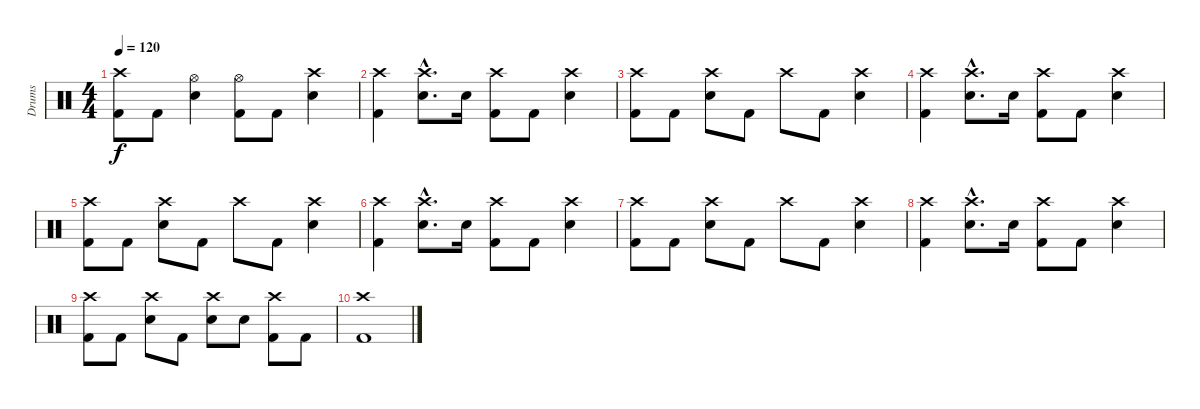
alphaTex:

\track ("Drums" "Drums") {instrument percussion}
\staff {score}
\articulation defaults
\ts (4 4)
\tempo 120
\clef neutral
\ks c
("Crash high (hit)" "Kick (hit) 2").8{dy f} "Kick (hit) 2".8 ("Hi-Hat (open)" "Snare (hit) 2").4 ("Hi-Hat (open)" "Kick (hit) 2").8 "Kick (hit) 2".8 ("Crash high (hit)" "Snare (hit) 2").4 |
("Crash high (hit)" "Kick (hit) 2").4 ("Crash high (hit)"{hac} "Snare (hit) 2"{hac}).8{d} "Snare (hit) 2".16 ("Crash high (hit)" "Kick (hit) 2").8 "Kick (hit) 2".8 ("Crash high (hit)" "Snare (hit) 2").4 |
("Crash high (hit)" "Kick (hit) 2").8 "Kick (hit) 2".8 ("Crash high (hit)" "Snare (hit) 2").8 "Kick (hit) 2".8 "Crash high (hit)".8 "Kick (hit) 2".8 ("Crash high (hit)" "Snare (hit) 2").4 |
("Crash high (hit)" "Kick (hit) 2").4 ("Crash high (hit)"{hac} "Snare (hit) 2"{hac}).8{d} "Snare (hit) 2".16 ("Crash high (hit)" "Kick (hit) 2").8 "Kick (hit) 2".8 ("Crash high (hit)" "Snare (hit) 2").4 |
("Crash high (hit)" "Kick (hit) 2").8 "Kick (hit) 2".8 ("Crash high (hit)" "Snare (hit) 2").8 "Kick (hit) 2".8 "Crash high (hit)".8 "Kick (hit) 2".8 ("Crash high (hit)" "Snare (hit) 2").4 |
("Crash high (hit)" "Kick (hit) 2").4 ("Crash high (hit)"{hac} "Snare (hit) 2"{hac}).8{d} "Snare (hit) 2".16 ("Crash high (hit)" "Kick (hit) 2").8 "Kick (hit) 2".8 ("Crash high (hit)" "Snare (hit) 2").4 |
("Crash high (hit)" "Kick (hit) 2").8 "Kick (hit) 2".8 ("Crash high (hit)" "Snare (hit) 2").8 "Kick (hit) 2".8 "Crash high (hit)".8 "Kick (hit) 2".8 ("Crash high (hit)" "Snare (hit) 2").4 |
("Crash high (hit)" "Kick (hit) 2").4 ("Crash high (hit)"{hac} "Snare (hit) 2"{hac}).8{d} "Snare (hit) 2".16 ("Crash high (hit)" "Kick (hit) 2").8 "Kick (hit) 2".8 ("Crash high (hit)" "Snare (hit) 2").4 |
("Crash high (hit)" "Kick (hit) 2").8 "Kick (hit) 2".8 ("Crash high (hit)" "Snare (hit) 2").8 "Kick (hit) 2".8 ("Crash high (hit)" "Snare (hit) 2").8 "Snare (hit) 2".8 ("Crash high (hit)" "Kick (hit) 2").8 "Kick (hit) 2".8 |
("Crash high (hit)" "Kick (hit) 2").1
